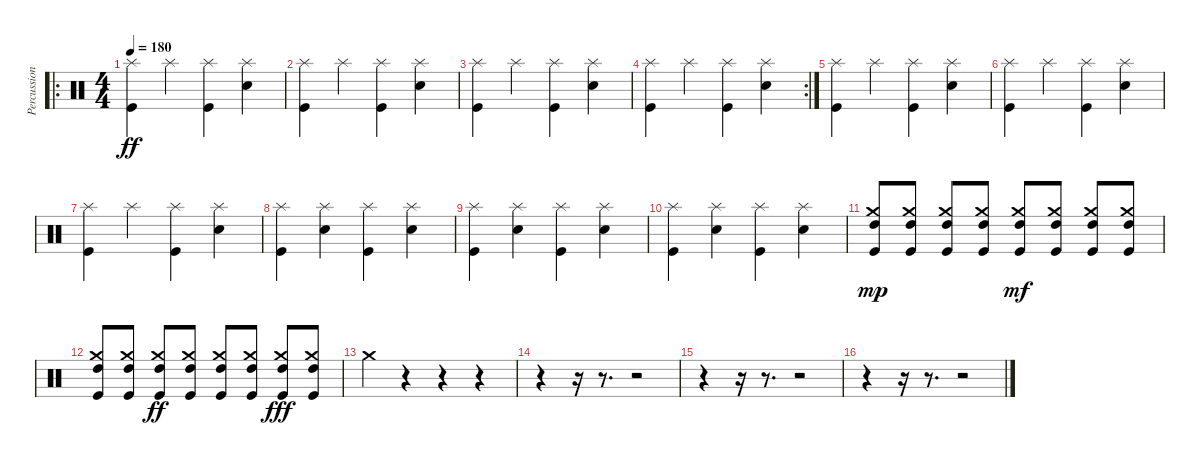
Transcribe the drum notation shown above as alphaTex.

\track ("Percussion" "Percussion") {instrument percussion}
\staff {score}
\articulation defaults
\ro
\ts (4 4)
\tempo 180
\clef neutral
\ks c
("Kick (hit)" "Splash (hit)").4{dy ff} "Splash (hit)".4 ("Kick (hit)" "Splash (hit)").4 ("Snare (hit) 2" "Splash (hit)").4 |
("Kick (hit)" "Splash (hit)").4 "Splash (hit)".4 ("Kick (hit)" "Splash (hit)").4 ("Snare (hit) 2" "Splash (hit)").4 |
("Kick (hit)" "Splash (hit)").4 "Splash (hit)".4 ("Kick (hit)" "Splash (hit)").4 ("Snare (hit) 2" "Splash (hit)").4 |
\rc 2
("Kick (hit)" "Splash (hit)").4 "Splash (hit)".4 ("Kick (hit)" "Splash (hit)").4 ("Snare (hit) 2" "Splash (hit)").4 |
("Kick (hit)" "Splash (hit)").4 "Splash (hit)".4 ("Kick (hit)" "Splash (hit)").4 ("Snare (hit) 2" "Splash (hit)").4 |
("Kick (hit)" "Splash (hit)").4 "Splash (hit)".4 ("Kick (hit)" "Splash (hit)").4 ("Snare (hit) 2" "Splash (hit)").4 |
("Kick (hit)" "Splash (hit)").4 "Splash (hit)".4 ("Kick (hit)" "Splash (hit)").4 ("Snare (hit) 2" "Splash (hit)").4 |
("Kick (hit)" "Splash (hit)").4 ("Snare (hit) 2" "Splash (hit)").4 ("Kick (hit)" "Splash (hit)").4 ("Snare (hit) 2" "Splash (hit)").4 |
("Kick (hit)" "Splash (hit)").4 ("Snare (hit) 2" "Splash (hit)").4 ("Kick (hit)" "Splash (hit)").4 ("Snare (hit) 2" "Splash (hit)").4 |
("Kick (hit)" "Splash (hit)").4 ("Snare (hit) 2" "Splash (hit)").4 ("Kick (hit)" "Splash (hit)").4 ("Snare (hit) 2" "Splash (hit)").4 |
("Crash medium (hit)" "Kick (hit)" "High Tom (hit)").8{dy mp} ("Crash medium (hit)" "Kick (hit)" "High Tom (hit)").8 ("Crash medium (hit)" "Kick (hit)" "High Tom (hit)").8 ("Crash medium (hit)" "Kick (hit)" "High Tom (hit)").8 ("Crash medium (hit)" "Kick (hit)" "High Tom (hit)").8{dy mf} ("Crash medium (hit)" "Kick (hit)" "High Tom (hit)").8 ("Crash medium (hit)" "Kick (hit)" "High Tom (hit)").8 ("Crash medium (hit)" "Kick (hit)" "High Tom (hit)").8 |
("Crash medium (hit)" "Kick (hit)" "High Tom (hit)").8 ("Crash medium (hit)" "Kick (hit)" "High Tom (hit)").8 ("Crash medium (hit)" "Kick (hit)" "High Tom (hit)").8{dy ff} ("Crash medium (hit)" "Kick (hit)" "High Tom (hit)").8 ("Crash medium (hit)" "Kick (hit)" "High Tom (hit)").8 ("Crash medium (hit)" "Kick (hit)" "High Tom (hit)").8 ("Crash medium (hit)" "Kick (hit)" "High Tom (hit)").8{dy fff} ("Crash medium (hit)" "Kick (hit)" "High Tom (hit)").8 |
"Crash medium (hit)".4 r.4 r.4 r.4 |
r.4 r.16 r.8{d} r.2 |
r.4 r.16 r.8{d} r.2 |
r.4 r.16 r.8{d} r.2
